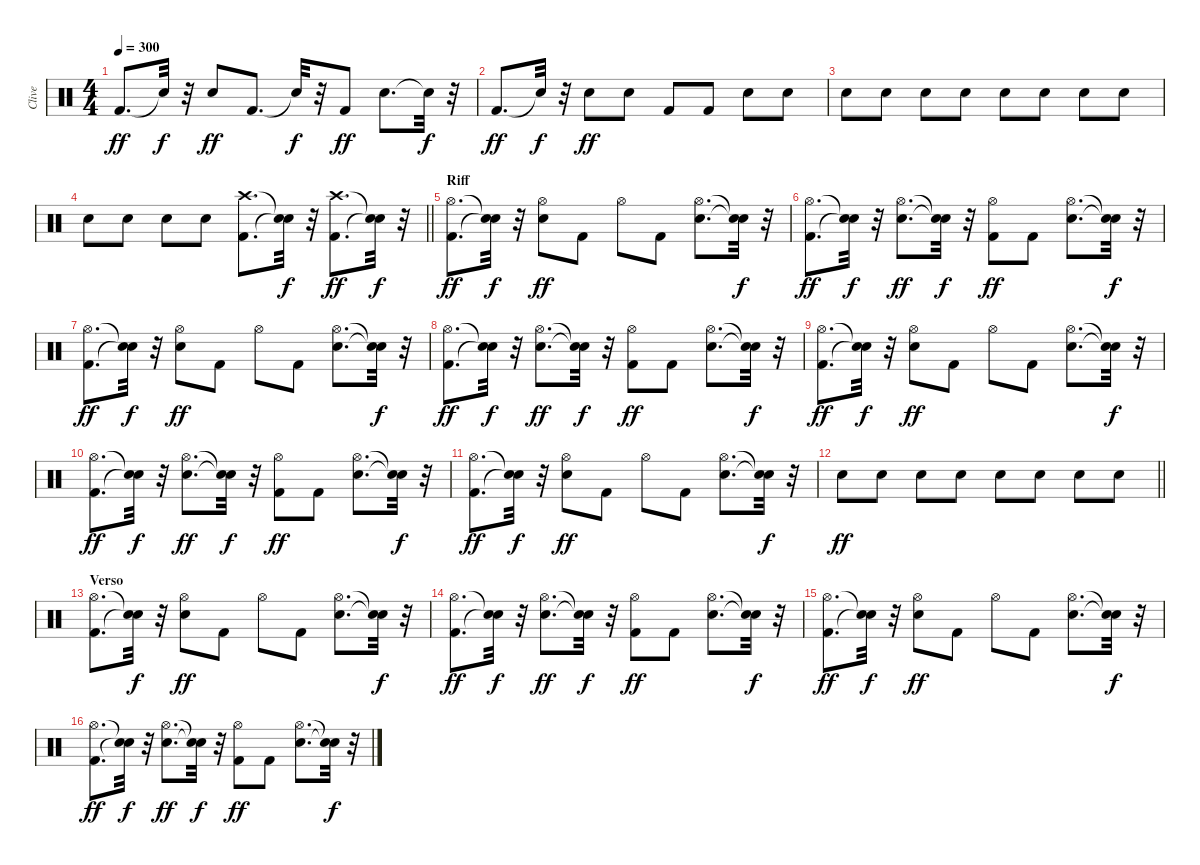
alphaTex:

\track ("Clive" "Clive") {instrument percussion}
\staff {score}
\articulation defaults
\ts (4 4)
\tempo 300
\clef neutral
\ks c "Kick (hit) 2".8{d dy ff} "Snare (hit)"{t}.32{dy f}
r.32 "Snare (hit) 2".8{dy ff} "Kick (hit) 2".8{d} "Snare (hit)"{t}.32{dy f} r.32 "Kick (hit) 2".8{dy ff} "Snare (hit) 2".8{d} "Snare (hit)"{t}.32{dy f} r.32 |
"Kick (hit) 2".8{d dy ff} "Snare (hit)"{t}.32{dy f} r.32 "Snare (hit) 2".8{dy ff} "Snare (hit) 2".8 "Kick (hit) 2".8 "Kick (hit) 2".8 "Snare (hit) 2".8 "Snare (hit) 2".8 |
"Snare (hit) 2".8 "Snare (hit) 2".8 "Snare (hit) 2".8 "Snare (hit) 2".8 "Snare (hit) 2".8 "Snare (hit) 2".8 "Snare (hit) 2".8 "Snare (hit) 2".8 |
\barLineRight lightlight "Snare (hit) 2".8 "Snare (hit) 2".8 "Snare (hit) 2".8 "Snare (hit) 2".8
("Kick (hit) 2" "Crash high (hit)").8{d} ("Snare (hit)"{t} "Snare (hit)"{t}).32{dy f} r.32 ("Kick (hit) 2" "Crash high (hit)").8{d dy ff} ("Snare (hit)"{t} "Snare (hit)"{t}).32{dy f} r.32 |
\section ("" "Riff")
("Kick (hit) 2" "Hi-Hat (open)").8{d dy ff} ("Snare (hit)"{t} "Snare (hit)"{t}).32{dy f} r.32 ("Snare (hit) 2" "Hi-Hat (open)").8{dy ff} "Kick (hit) 2".8 "Hi-Hat (open)".8 "Kick (hit) 2".8 ("Snare (hit) 2" "Hi-Hat (open)").8{d} ("Snare (hit)"{t} "Snare (hit)"{t}).32{dy f} r.32 |
("Kick (hit) 2" "Hi-Hat (open)").8{d dy ff} ("Snare (hit)"{t} "Snare (hit)"{t}).32{dy f} r.32 ("Snare (hit) 2" "Hi-Hat (open)").8{d dy ff} ("Snare (hit)"{t} "Snare (hit)"{t}).32{dy f} r.32 ("Kick (hit) 2" "Hi-Hat (open)").8{dy ff} "Kick (hit) 2".8 ("Snare (hit) 2" "Hi-Hat (open)").8{d} ("Snare (hit)"{t} "Snare (hit)"{t}).32{dy f} r.32 |
("Kick (hit) 2" "Hi-Hat (open)").8{d dy ff} ("Snare (hit)"{t} "Snare (hit)"{t}).32{dy f} r.32 ("Snare (hit) 2" "Hi-Hat (open)").8{dy ff} "Kick (hit) 2".8 "Hi-Hat (open)".8 "Kick (hit) 2".8 ("Snare (hit) 2" "Hi-Hat (open)").8{d} ("Snare (hit)"{t} "Snare (hit)"{t}).32{dy f} r.32 |
("Kick (hit) 2" "Hi-Hat (open)").8{d dy ff} ("Snare (hit)"{t} "Snare (hit)"{t}).32{dy f} r.32 ("Snare (hit) 2" "Hi-Hat (open)").8{d dy ff} ("Snare (hit)"{t} "Snare (hit)"{t}).32{dy f} r.32 ("Kick (hit) 2" "Hi-Hat (open)").8{dy ff} "Kick (hit) 2".8 ("Snare (hit) 2" "Hi-Hat (open)").8{d} ("Snare (hit)"{t} "Snare (hit)"{t}).32{dy f} r.32 |
("Kick (hit) 2" "Hi-Hat (open)").8{d dy ff} ("Snare (hit)"{t} "Snare (hit)"{t}).32{dy f} r.32 ("Snare (hit) 2" "Hi-Hat (open)").8{dy ff} "Kick (hit) 2".8 "Hi-Hat (open)".8 "Kick (hit) 2".8 ("Snare (hit) 2" "Hi-Hat (open)").8{d} ("Snare (hit)"{t} "Snare (hit)"{t}).32{dy f} r.32 |
("Kick (hit) 2" "Hi-Hat (open)").8{d dy ff} ("Snare (hit)"{t} "Snare (hit)"{t}).32{dy f} r.32 ("Snare (hit) 2" "Hi-Hat (open)").8{d dy ff} ("Snare (hit)"{t} "Snare (hit)"{t}).32{dy f} r.32 ("Kick (hit) 2" "Hi-Hat (open)").8{dy ff} "Kick (hit) 2".8 ("Snare (hit) 2" "Hi-Hat (open)").8{d} ("Snare (hit)"{t} "Snare (hit)"{t}).32{dy f} r.32 |
("Kick (hit) 2" "Hi-Hat (open)").8{d dy ff} ("Snare (hit)"{t} "Snare (hit)"{t}).32{dy f} r.32 ("Snare (hit) 2" "Hi-Hat (open)").8{dy ff} "Kick (hit) 2".8 "Hi-Hat (open)".8 "Kick (hit) 2".8 ("Snare (hit) 2" "Hi-Hat (open)").8{d} ("Snare (hit)"{t} "Snare (hit)"{t}).32{dy f} r.32 |
\barLineRight lightlight "Snare (hit) 2".8{dy ff} "Snare (hit) 2".8 "Snare (hit) 2".8 "Snare (hit) 2".8 "Snare (hit) 2".8 "Snare (hit) 2".8 "Snare (hit) 2".8 "Snare (hit) 2".8
|
\section ("" "Verso")
("Kick (hit) 2" "Hi-Hat (open)").8{d} ("Snare (hit)"{t} "Snare (hit)"{t}).32{dy f} r.32 ("Snare (hit) 2" "Hi-Hat (open)").8{dy ff} "Kick (hit) 2".8 "Hi-Hat (open)".8 "Kick (hit) 2".8 ("Snare (hit) 2" "Hi-Hat (open)").8{d} ("Snare (hit)"{t} "Snare (hit)"{t}).32{dy f} r.32 |
("Kick (hit) 2" "Hi-Hat (open)").8{d dy ff} ("Snare (hit)"{t} "Snare (hit)"{t}).32{dy f} r.32 ("Snare (hit) 2" "Hi-Hat (open)").8{d dy ff} ("Snare (hit)"{t} "Snare (hit)"{t}).32{dy f} r.32 ("Kick (hit) 2" "Hi-Hat (open)").8{dy ff} "Kick (hit) 2".8 ("Snare (hit) 2" "Hi-Hat (open)").8{d} ("Snare (hit)"{t} "Snare (hit)"{t}).32{dy f} r.32 |
("Kick (hit) 2" "Hi-Hat (open)").8{d dy ff} ("Snare (hit)"{t} "Snare (hit)"{t}).32{dy f} r.32 ("Snare (hit) 2" "Hi-Hat (open)").8{dy ff} "Kick (hit) 2".8 "Hi-Hat (open)".8 "Kick (hit) 2".8 ("Snare (hit) 2" "Hi-Hat (open)").8{d} ("Snare (hit)"{t} "Snare (hit)"{t}).32{dy f} r.32 |
("Kick (hit) 2" "Hi-Hat (open)").8{d dy ff} ("Snare (hit)"{t} "Snare (hit)"{t}).32{dy f} r.32 ("Snare (hit) 2" "Hi-Hat (open)").8{d dy ff} ("Snare (hit)"{t} "Snare (hit)"{t}).32{dy f} r.32 ("Kick (hit) 2" "Hi-Hat (open)").8{dy ff} "Kick (hit) 2".8 ("Snare (hit) 2" "Hi-Hat (open)").8{d} ("Snare (hit)"{t} "Snare (hit)"{t}).32{dy f} r.32
